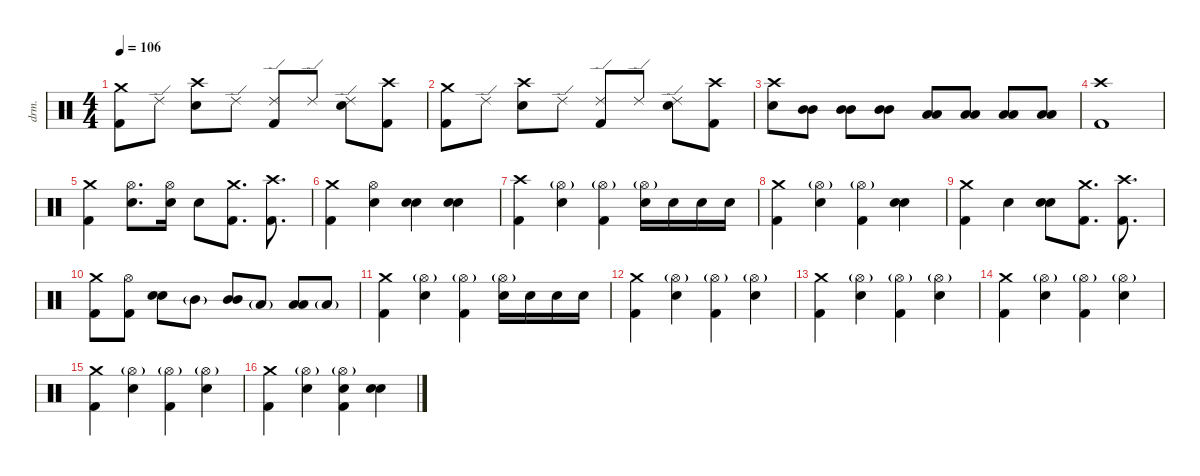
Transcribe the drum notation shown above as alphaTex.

\defaultSystemsLayout 4
\hideDynamics
\bracketExtendMode nobrackets
\track ("Lee Kerslake" "drm.") {solo instrument percussion}
\staff {score}
\articulation defaults
\ts (4 4)
\tempo 106
\clef neutral
\ks c
("Crash medium (hit)" "Kick (hit) 2").8{dy f} "Ride (edge) 2".8 ("Crash high (hit)" "Snare (hit) 2").8 "Ride (edge) 2".8 ("Ride (edge) 2" "Kick (hit) 2").8 "Ride (edge) 2".8 ("Ride (edge) 2" "Snare (hit) 2").8 ("Crash high (hit)" "Kick (hit) 2").8 |
("Crash medium (hit)" "Kick (hit) 2").8 "Ride (edge) 2".8 ("Crash high (hit)" "Snare (hit) 2").8 "Ride (edge) 2".8 ("Ride (edge) 2" "Kick (hit) 2").8 "Ride (edge) 2".8 ("Ride (edge) 2" "Snare (hit) 2").8 ("Crash high (hit)" "Kick (hit) 2").8 |
("Crash high (hit)" "Snare (hit) 2").8 ("Mid Tom (hit)" "Mid Tom (hit)").8 ("Mid Tom (hit)" "Mid Tom (hit)").8 ("Mid Tom (hit)" "Mid Tom (hit)").8 ("Low Tom (hit)" "Low Tom (hit)").8 ("Low Tom (hit)" "Low Tom (hit)").8 ("Low Tom (hit)" "Low Tom (hit)").8 ("Low Tom (hit)" "Low Tom (hit)").8 |
("Crash high (hit)" "Kick (hit) 2").1 |
("Crash medium (hit)" "Kick (hit) 2").4 ("Hi-Hat (open)" "Snare (hit) 2").8{d} ("Hi-Hat (open)" "Snare (hit) 2").16 "Snare (hit) 2".8 ("Crash medium (hit)" "Kick (hit) 2").8{d} ("Crash high (hit)" "Kick (hit) 2").8{d} |
("Crash medium (hit)" "Kick (hit) 2").4 ("Hi-Hat (open)" "Snare (hit) 2").4 ("Snare (hit) 2" "Snare (hit) 2").4 ("Snare (hit) 2" "Snare (hit) 2").4 |
("Crash high (hit)" "Kick (hit) 2").4 ("Hi-Hat (open)"{g} "Snare (hit) 2").4 ("Hi-Hat (open)"{g} "Kick (hit) 2").4 ("Hi-Hat (open)"{g} "Snare (hit) 2").16 "Snare (hit) 2".16 "Snare (hit) 2".16 "Snare (hit) 2".16 |
("Crash medium (hit)" "Kick (hit) 2").4 ("Hi-Hat (open)"{g} "Snare (hit) 2").4 ("Hi-Hat (open)"{g} "Kick (hit) 2").4 ("Snare (hit) 2" "Snare (hit) 2").4 |
("Crash medium (hit)" "Kick (hit) 2").4 "Snare (hit) 2".4 ("Snare (hit) 2" "Snare (hit) 2").8 ("Crash medium (hit)" "Kick (hit) 2").8{d} ("Crash high (hit)" "Kick (hit) 2").8{d} |
("Crash medium (hit)" "Kick (hit) 2").8 ("Hi-Hat (open)" "Kick (hit) 2").8 ("Snare (hit) 2" "Snare (hit) 2").8 "Mid Tom (hit)"{g}.8 ("Mid Tom (hit)" "Mid Tom (hit)").8 "Low Tom (hit)"{g}.8 ("Low Tom (hit)" "Low Tom (hit)").8 "Low Tom (hit)"{g}.8 |
("Crash medium (hit)" "Kick (hit) 2").4 ("Hi-Hat (open)"{g} "Snare (hit) 2").4 ("Hi-Hat (open)"{g} "Kick (hit) 2").4 ("Hi-Hat (open)"{g} "Snare (hit) 2").16 "Snare (hit) 2".16 "Snare (hit) 2".16 "Snare (hit) 2".16 |
("Crash medium (hit)" "Kick (hit) 2").4 ("Hi-Hat (open)"{g} "Snare (hit) 2").4 ("Hi-Hat (open)"{g} "Kick (hit) 2").4 ("Hi-Hat (open)"{g} "Snare (hit) 2").4 |
("Crash medium (hit)" "Kick (hit) 2").4 ("Hi-Hat (open)"{g} "Snare (hit) 2").4 ("Hi-Hat (open)"{g} "Kick (hit) 2").4 ("Hi-Hat (open)"{g} "Snare (hit) 2").4 |
("Crash medium (hit)" "Kick (hit) 2").4 ("Hi-Hat (open)"{g} "Snare (hit) 2").4 ("Hi-Hat (open)"{g} "Kick (hit) 2").4 ("Hi-Hat (open)"{g} "Snare (hit) 2").4 |
("Crash medium (hit)" "Kick (hit) 2").4 ("Hi-Hat (open)"{g} "Snare (hit) 2").4 ("Hi-Hat (open)"{g} "Kick (hit) 2").4 ("Hi-Hat (open)"{g} "Snare (hit) 2").4 |
("Crash medium (hit)" "Kick (hit) 2").4 ("Hi-Hat (open)"{g} "Snare (hit) 2").4 ("Hi-Hat (open)"{g} "Snare (hit) 2" "Kick (hit) 2").4 ("Snare (hit) 2" "Snare (hit) 2").4
